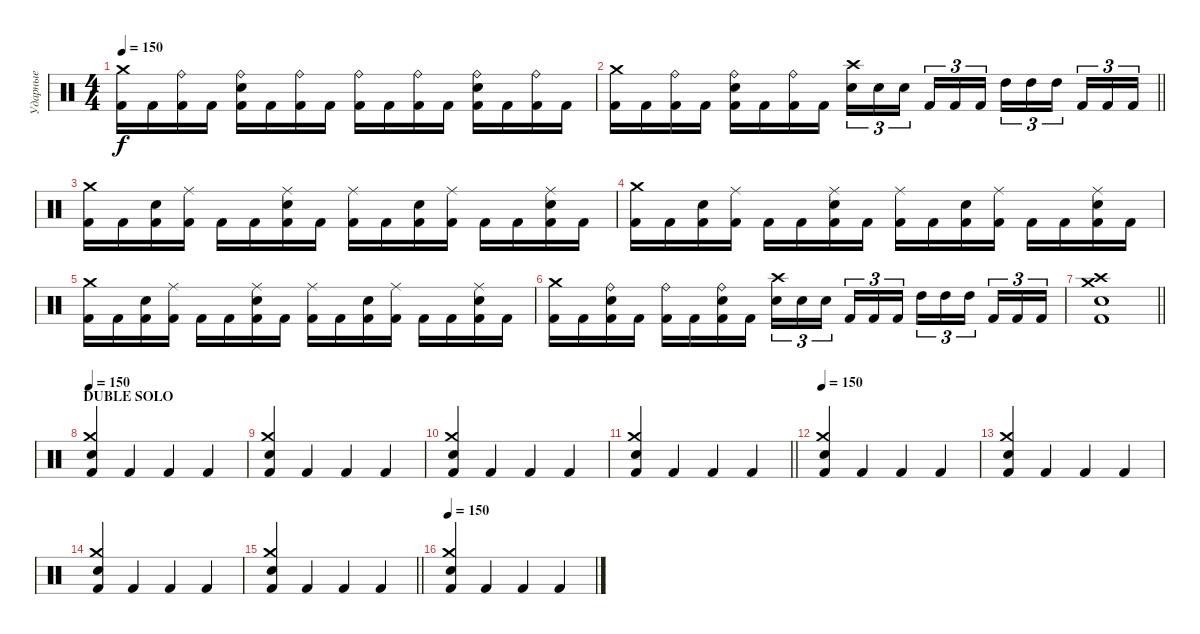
\track ("Ударные" "Ударные") {instrument percussion}
\staff {score}
\articulation defaults
\ts (4 4)
\tempo 150
\clef neutral
\ks c
("Kick (hit) 2" "Crash medium (hit)").16{dy f} "Kick (hit) 2".16 ("Kick (hit) 2" "Ride (bell)").16 "Kick (hit) 2".16 ("Kick (hit) 2" "Snare (hit) 2" "Ride (bell)").16 "Kick (hit) 2".16 ("Kick (hit) 2" "Ride (bell)").16 "Kick (hit) 2".16 ("Kick (hit) 2" "Ride (bell)").16 "Kick (hit) 2".16 ("Kick (hit) 2" "Ride (bell)").16 "Kick (hit) 2".16 ("Kick (hit) 2" "Snare (hit) 2" "Ride (bell)").16 "Kick (hit) 2".16 ("Kick (hit) 2" "Ride (bell)").16 "Kick (hit) 2".16 |
\barLineRight lightlight
("Kick (hit) 2" "Crash medium (hit)").16 "Kick (hit) 2".16 ("Kick (hit) 2" "Ride (bell)").16 "Kick (hit) 2".16 ("Kick (hit) 2" "Snare (hit) 2" "Ride (bell)").16 "Kick (hit) 2".16 ("Kick (hit) 2" "Ride (bell)").16 "Kick (hit) 2".16 ("Snare (hit) 2" "Crash high (hit)").16{tu (3 2)} "Snare (hit) 2".16{tu (3 2)} "Snare (hit) 2".16{tu (3 2)} "Kick (hit) 2".16{tu (3 2)} "Kick (hit) 2".16{tu (3 2)} "Kick (hit) 2".16{tu (3 2)} "High Tom (hit)".16{tu (3 2)} "High Tom (hit)".16{tu (3 2)} "High Tom (hit)".16{tu (3 2)} "Kick (hit) 2".16{tu (3 2)} "Kick (hit) 2".16{tu (3 2)} "Kick (hit) 2".16{tu (3 2)} |
("Kick (hit) 2" "Crash medium (hit)").16 "Kick (hit) 2".16 ("Kick (hit) 2" "Snare (hit) 2").16 ("Kick (hit) 2" "Ride (middle)").16 "Kick (hit) 2".16 "Kick (hit) 2".16 ("Kick (hit) 2" "Snare (hit) 2" "Ride (middle)").16 "Kick (hit) 2".16 ("Kick (hit) 2" "Ride (middle)").16 "Kick (hit) 2".16 ("Kick (hit) 2" "Snare (hit) 2").16 ("Kick (hit) 2" "Ride (middle)").16 "Kick (hit) 2".16 "Kick (hit) 2".16 ("Kick (hit) 2" "Snare (hit) 2" "Ride (middle)").16 "Kick (hit) 2".16 |
("Kick (hit) 2" "Crash medium (hit)").16 "Kick (hit) 2".16 ("Kick (hit) 2" "Snare (hit) 2").16 ("Kick (hit) 2" "Ride (middle)").16 "Kick (hit) 2".16 "Kick (hit) 2".16 ("Kick (hit) 2" "Snare (hit) 2" "Ride (middle)").16 "Kick (hit) 2".16 ("Kick (hit) 2" "Ride (middle)").16 "Kick (hit) 2".16 ("Kick (hit) 2" "Snare (hit) 2").16 ("Kick (hit) 2" "Ride (middle)").16 "Kick (hit) 2".16 "Kick (hit) 2".16 ("Kick (hit) 2" "Snare (hit) 2" "Ride (middle)").16 "Kick (hit) 2".16 |
("Kick (hit) 2" "Crash medium (hit)").16 "Kick (hit) 2".16 ("Kick (hit) 2" "Snare (hit) 2").16 ("Kick (hit) 2" "Ride (middle)").16 "Kick (hit) 2".16 "Kick (hit) 2".16 ("Kick (hit) 2" "Snare (hit) 2" "Ride (middle)").16 "Kick (hit) 2".16 ("Kick (hit) 2" "Ride (middle)").16 "Kick (hit) 2".16 ("Kick (hit) 2" "Snare (hit) 2").16 ("Kick (hit) 2" "Ride (middle)").16 "Kick (hit) 2".16 "Kick (hit) 2".16 ("Kick (hit) 2" "Snare (hit) 2" "Ride (middle)").16 "Kick (hit) 2".16 |
("Kick (hit) 2" "Crash medium (hit)").16 "Kick (hit) 2".16 ("Kick (hit) 2" "Snare (hit) 2" "Ride (bell)").16 "Kick (hit) 2".16 ("Kick (hit) 2" "Ride (bell)").16 "Kick (hit) 2".16 ("Kick (hit) 2" "Snare (hit) 2" "Ride (bell)").16 "Kick (hit) 2".16 ("Snare (hit) 2" "Crash high (hit)").16{tu (3 2)} "Snare (hit) 2".16{tu (3 2)} "Snare (hit) 2".16{tu (3 2)} "Kick (hit) 2".16{tu (3 2)} "Kick (hit) 2".16{tu (3 2)} "Kick (hit) 2".16{tu (3 2)} "High Tom (hit)".16{tu (3 2)} "High Tom (hit)".16{tu (3 2)} "High Tom (hit)".16{tu (3 2)} "Kick (hit) 2".16{tu (3 2)} "Kick (hit) 2".16{tu (3 2)} "Kick (hit) 2".16{tu (3 2)} |
\barLineRight lightlight
("Crash medium (hit)" "Crash high (hit)" "Kick (hit) 2" "Snare (hit) 2").1 |
\section ("" "DUBLE SOLO")
\tempo 150
("Kick (hit) 2" "Snare (hit) 2" "Crash medium (hit)").4 "Kick (hit) 2".4 "Kick (hit) 2".4 "Kick (hit) 2".4 |
("Kick (hit) 2" "Snare (hit) 2" "Crash medium (hit)").4 "Kick (hit) 2".4 "Kick (hit) 2".4 "Kick (hit) 2".4 |
("Kick (hit) 2" "Snare (hit) 2" "Crash medium (hit)").4 "Kick (hit) 2".4 "Kick (hit) 2".4 "Kick (hit) 2".4 |
\barLineRight lightlight
("Kick (hit) 2" "Snare (hit) 2" "Crash medium (hit)").4 "Kick (hit) 2".4 "Kick (hit) 2".4 "Kick (hit) 2".4 |
\tempo 150
("Kick (hit) 2" "Snare (hit) 2" "Crash medium (hit)").4 "Kick (hit) 2".4 "Kick (hit) 2".4 "Kick (hit) 2".4 |
("Kick (hit) 2" "Snare (hit) 2" "Crash medium (hit)").4 "Kick (hit) 2".4 "Kick (hit) 2".4 "Kick (hit) 2".4 |
("Kick (hit) 2" "Snare (hit) 2" "Crash medium (hit)").4 "Kick (hit) 2".4 "Kick (hit) 2".4 "Kick (hit) 2".4 |
\barLineRight lightlight
("Kick (hit) 2" "Snare (hit) 2" "Crash medium (hit)").4 "Kick (hit) 2".4 "Kick (hit) 2".4 "Kick (hit) 2".4 |
\tempo 150
("Kick (hit) 2" "Snare (hit) 2" "Crash medium (hit)").4 "Kick (hit) 2".4 "Kick (hit) 2".4 "Kick (hit) 2".4
